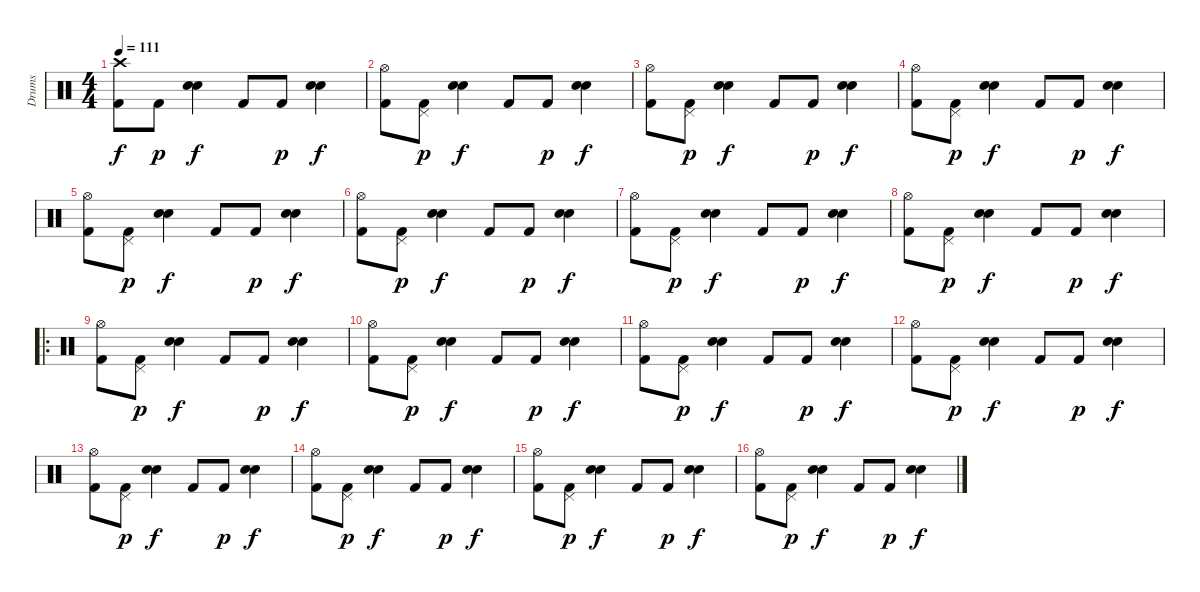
\track ("Drums" "Drums") {instrument percussion}
\staff {score}
\articulation defaults
\ts (4 4)
\tempo 111
\clef neutral
\ks c
("Crash high (hit)" "Kick (hit) 2").8{dy f} "Kick (hit) 2".8{dy p} ("Snare (hit) 2" "Electric Snare (hit)").4{dy f} "Kick (hit) 2".8 "Kick (hit) 2".8{dy p} ("Snare (hit) 2" "Electric Snare (hit)").4{dy f} |
("Hi-Hat (open)" "Kick (hit) 2").8 ("Kick (hit) 2" "Pedal Hi-Hat (hit)").8{dy p} ("Snare (hit) 2" "Electric Snare (hit)").4{dy f} "Kick (hit) 2".8 "Kick (hit) 2".8{dy p} ("Snare (hit) 2" "Electric Snare (hit)").4{dy f} |
("Hi-Hat (open)" "Kick (hit) 2").8 ("Kick (hit) 2" "Pedal Hi-Hat (hit)").8{dy p} ("Snare (hit) 2" "Electric Snare (hit)").4{dy f} "Kick (hit) 2".8 "Kick (hit) 2".8{dy p} ("Snare (hit) 2" "Electric Snare (hit)").4{dy f} |
("Hi-Hat (open)" "Kick (hit) 2").8 ("Kick (hit) 2" "Pedal Hi-Hat (hit)").8{dy p} ("Snare (hit) 2" "Electric Snare (hit)").4{dy f} "Kick (hit) 2".8 "Kick (hit) 2".8{dy p} ("Snare (hit) 2" "Electric Snare (hit)").4{dy f} |
("Hi-Hat (open)" "Kick (hit) 2").8 ("Kick (hit) 2" "Pedal Hi-Hat (hit)").8{dy p} ("Snare (hit) 2" "Electric Snare (hit)").4{dy f} "Kick (hit) 2".8 "Kick (hit) 2".8{dy p} ("Snare (hit) 2" "Electric Snare (hit)").4{dy f} |
("Hi-Hat (open)" "Kick (hit) 2").8 ("Kick (hit) 2" "Pedal Hi-Hat (hit)").8{dy p} ("Snare (hit) 2" "Electric Snare (hit)").4{dy f} "Kick (hit) 2".8 "Kick (hit) 2".8{dy p} ("Snare (hit) 2" "Electric Snare (hit)").4{dy f} |
("Hi-Hat (open)" "Kick (hit) 2").8 ("Kick (hit) 2" "Pedal Hi-Hat (hit)").8{dy p} ("Snare (hit) 2" "Electric Snare (hit)").4{dy f} "Kick (hit) 2".8 "Kick (hit) 2".8{dy p} ("Snare (hit) 2" "Electric Snare (hit)").4{dy f} |
("Hi-Hat (open)" "Kick (hit) 2").8 ("Kick (hit) 2" "Pedal Hi-Hat (hit)").8{dy p} ("Snare (hit) 2" "Electric Snare (hit)").4{dy f} "Kick (hit) 2".8 "Kick (hit) 2".8{dy p} ("Snare (hit) 2" "Electric Snare (hit)").4{dy f} |
\ro
("Hi-Hat (open)" "Kick (hit) 2").8 ("Kick (hit) 2" "Pedal Hi-Hat (hit)").8{dy p} ("Snare (hit) 2" "Snare (hit) 2").4{dy f} "Kick (hit) 2".8 "Kick (hit) 2".8{dy p} ("Snare (hit) 2" "Snare (hit) 2").4{dy f} |
("Hi-Hat (open)" "Kick (hit) 2").8 ("Kick (hit) 2" "Pedal Hi-Hat (hit)").8{dy p} ("Snare (hit) 2" "Snare (hit) 2").4{dy f} "Kick (hit) 2".8 "Kick (hit) 2".8{dy p} ("Snare (hit) 2" "Snare (hit) 2").4{dy f} |
("Hi-Hat (open)" "Kick (hit) 2").8 ("Kick (hit) 2" "Pedal Hi-Hat (hit)").8{dy p} ("Snare (hit) 2" "Snare (hit) 2").4{dy f} "Kick (hit) 2".8 "Kick (hit) 2".8{dy p} ("Snare (hit) 2" "Snare (hit) 2").4{dy f} |
("Hi-Hat (open)" "Kick (hit) 2").8 ("Kick (hit) 2" "Pedal Hi-Hat (hit)").8{dy p} ("Snare (hit) 2" "Snare (hit) 2").4{dy f} "Kick (hit) 2".8 "Kick (hit) 2".8{dy p} ("Snare (hit) 2" "Snare (hit) 2").4{dy f} |
("Hi-Hat (open)" "Kick (hit) 2").8 ("Kick (hit) 2" "Pedal Hi-Hat (hit)").8{dy p} ("Snare (hit) 2" "Snare (hit) 2").4{dy f} "Kick (hit) 2".8 "Kick (hit) 2".8{dy p} ("Snare (hit) 2" "Snare (hit) 2").4{dy f} |
("Hi-Hat (open)" "Kick (hit) 2").8 ("Kick (hit) 2" "Pedal Hi-Hat (hit)").8{dy p} ("Snare (hit) 2" "Snare (hit) 2").4{dy f} "Kick (hit) 2".8 "Kick (hit) 2".8{dy p} ("Snare (hit) 2" "Snare (hit) 2").4{dy f} |
("Hi-Hat (open)" "Kick (hit) 2").8 ("Kick (hit) 2" "Pedal Hi-Hat (hit)").8{dy p} ("Snare (hit) 2" "Snare (hit) 2").4{dy f} "Kick (hit) 2".8 "Kick (hit) 2".8{dy p} ("Snare (hit) 2" "Snare (hit) 2").4{dy f} |
("Hi-Hat (open)" "Kick (hit) 2").8 ("Kick (hit) 2" "Pedal Hi-Hat (hit)").8{dy p} ("Snare (hit) 2" "Snare (hit) 2").4{dy f} "Kick (hit) 2".8 "Kick (hit) 2".8{dy p} ("Snare (hit) 2" "Snare (hit) 2").4{dy f}
